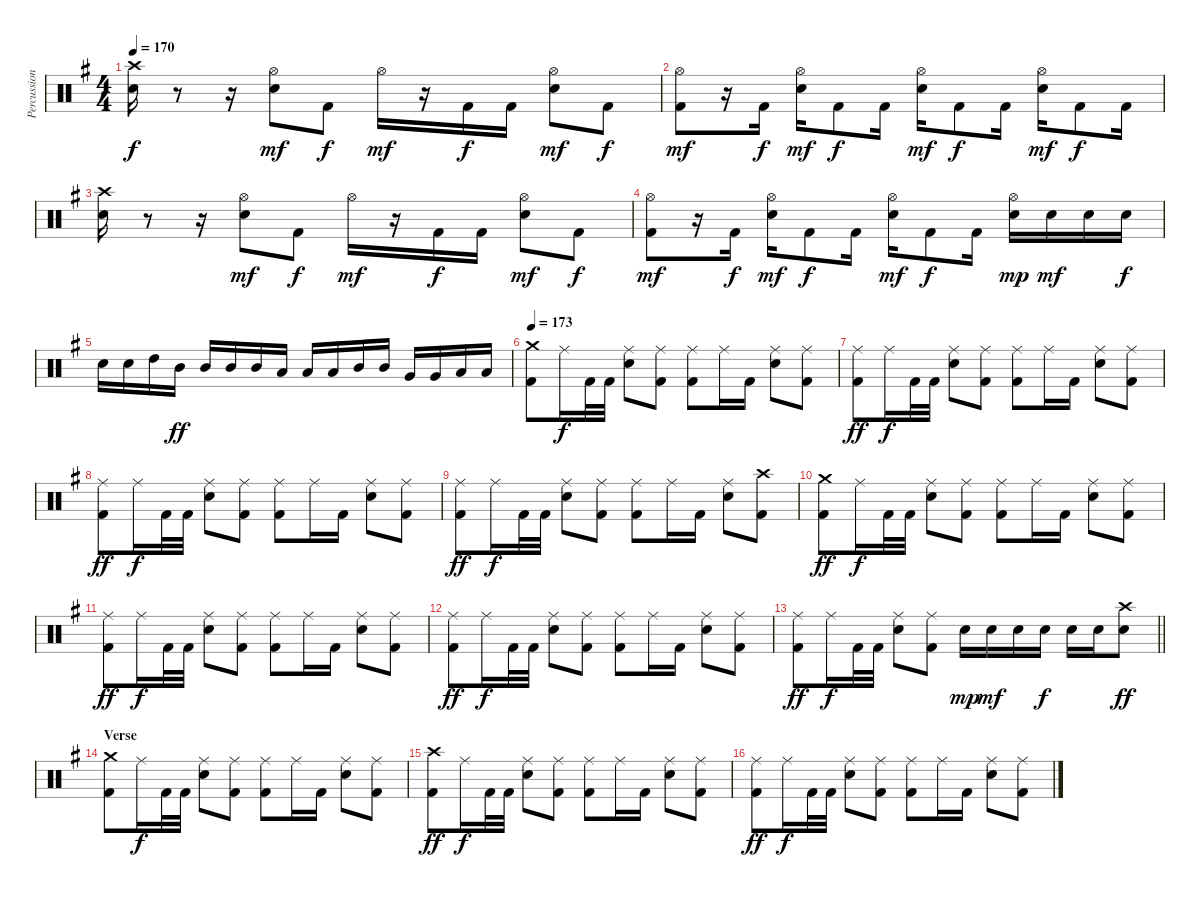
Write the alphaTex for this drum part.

\track ("Percussion" "Percussion") {instrument percussion}
\staff {score}
\articulation defaults
\ts (4 4)
\tempo 170
\clef neutral
\ks g
("Crash high (hit)" "Snare (hit) 2").16{dy f} r.8 r.16 ("Hi-Hat (open)" "Snare (hit) 2").8{dy mf} "Kick (hit) 2".8{dy f} "Hi-Hat (open)".16{dy mf} r.16 "Kick (hit) 2".16{dy f} "Kick (hit) 2".16 ("Hi-Hat (open)" "Snare (hit) 2").8{dy mf} "Kick (hit) 2".8{dy f} |
("Hi-Hat (open)" "Kick (hit) 2").8{dy mf} r.16 "Kick (hit) 2".16{dy f} ("Hi-Hat (open)" "Snare (hit) 2").16{dy mf} "Kick (hit) 2".8{dy f} "Kick (hit) 2".16 ("Hi-Hat (open)" "Snare (hit) 2").16{dy mf} "Kick (hit) 2".8{dy f} "Kick (hit) 2".16 ("Hi-Hat (open)" "Snare (hit) 2").16{dy mf} "Kick (hit) 2".8{dy f} "Kick (hit) 2".16 |
("Crash high (hit)" "Snare (hit) 2").16 r.8 r.16 ("Hi-Hat (open)" "Snare (hit) 2").8{dy mf} "Kick (hit) 2".8{dy f} "Hi-Hat (open)".16{dy mf} r.16 "Kick (hit) 2".16{dy f} "Kick (hit) 2".16 ("Hi-Hat (open)" "Snare (hit) 2").8{dy mf} "Kick (hit) 2".8{dy f} |
("Hi-Hat (open)" "Kick (hit) 2").8{dy mf} r.16 "Kick (hit) 2".16{dy f} ("Hi-Hat (open)" "Snare (hit) 2").16{dy mf} "Kick (hit) 2".8{dy f} "Kick (hit) 2".16 ("Hi-Hat (open)" "Snare (hit) 2").16{dy mf} "Kick (hit) 2".8{dy f} "Kick (hit) 2".16 ("Hi-Hat (open)" "Snare (hit) 2").16{dy mp} "Snare (hit) 2".16{dy mf} "Snare (hit) 2".16 "Snare (hit) 2".16{dy f} |
"Snare (hit) 2".16 "Snare (hit) 2".16 "High Tom (hit)".16 "Mid Tom (hit)".16{dy ff} "Mid Tom (hit)".16 "Mid Tom (hit)".16 "Mid Tom (hit)".16 "Low Tom (hit)".16 "Low Tom (hit)".16 "Low Tom (hit)".16 "Mid Tom (hit)".16 "Mid Tom (hit)".16 "Very Low Tom (hit)".16 "Very Low Tom (hit)".16 "Low Floor Tom (hit)".16 "Low Floor Tom (hit)".16 |
\tempo 173
("Crash medium (hit)" "Kick (hit) 2").8 "Ride (middle)".16{dy f} "Kick (hit) 2".32 "Kick (hit) 2".32 ("Ride (middle)" "Snare (hit) 2").8 ("Ride (middle)" "Kick (hit) 2").8 ("Ride (middle)" "Kick (hit) 2").8 "Ride (middle)".16 "Kick (hit) 2".16 ("Ride (middle)" "Snare (hit) 2").8 ("Ride (middle)" "Kick (hit) 2").8 |
("Ride (middle)" "Kick (hit) 2").8{dy ff} "Ride (middle)".16{dy f} "Kick (hit) 2".32 "Kick (hit) 2".32 ("Ride (middle)" "Snare (hit) 2").8 ("Ride (middle)" "Kick (hit) 2").8 ("Ride (middle)" "Kick (hit) 2").8 "Ride (middle)".16 "Kick (hit) 2".16 ("Ride (middle)" "Snare (hit) 2").8 ("Ride (middle)" "Kick (hit) 2").8 |
("Ride (middle)" "Kick (hit) 2").8{dy ff} "Ride (middle)".16{dy f} "Kick (hit) 2".32 "Kick (hit) 2".32 ("Ride (middle)" "Snare (hit) 2").8 ("Ride (middle)" "Kick (hit) 2").8 ("Ride (middle)" "Kick (hit) 2").8 "Ride (middle)".16 "Kick (hit) 2".16 ("Ride (middle)" "Snare (hit) 2").8 ("Ride (middle)" "Kick (hit) 2").8 |
("Ride (middle)" "Kick (hit) 2").8{dy ff} "Ride (middle)".16{dy f} "Kick (hit) 2".32 "Kick (hit) 2".32 ("Ride (middle)" "Snare (hit) 2").8 ("Ride (middle)" "Kick (hit) 2").8 ("Ride (middle)" "Kick (hit) 2").8 "Ride (middle)".16 "Kick (hit) 2".16 ("Ride (middle)" "Snare (hit) 2").8 ("Crash high (hit)" "Kick (hit) 2").8 |
("Crash medium (hit)" "Kick (hit) 2").8{dy ff} "Ride (middle)".16{dy f} "Kick (hit) 2".32 "Kick (hit) 2".32 ("Ride (middle)" "Snare (hit) 2").8 ("Ride (middle)" "Kick (hit) 2").8 ("Ride (middle)" "Kick (hit) 2").8 "Ride (middle)".16 "Kick (hit) 2".16 ("Ride (middle)" "Snare (hit) 2").8 ("Ride (middle)" "Kick (hit) 2").8 |
("Ride (middle)" "Kick (hit) 2").8{dy ff} "Ride (middle)".16{dy f} "Kick (hit) 2".32 "Kick (hit) 2".32 ("Ride (middle)" "Snare (hit) 2").8 ("Ride (middle)" "Kick (hit) 2").8 ("Ride (middle)" "Kick (hit) 2").8 "Ride (middle)".16 "Kick (hit) 2".16 ("Ride (middle)" "Snare (hit) 2").8 ("Ride (middle)" "Kick (hit) 2").8 |
("Ride (middle)" "Kick (hit) 2").8{dy ff} "Ride (middle)".16{dy f} "Kick (hit) 2".32 "Kick (hit) 2".32 ("Ride (middle)" "Snare (hit) 2").8 ("Ride (middle)" "Kick (hit) 2").8 ("Ride (middle)" "Kick (hit) 2").8 "Ride (middle)".16 "Kick (hit) 2".16 ("Ride (middle)" "Snare (hit) 2").8 ("Ride (middle)" "Kick (hit) 2").8 |
\barLineRight lightlight
("Ride (middle)" "Kick (hit) 2").8{dy ff} "Ride (middle)".16{dy f} "Kick (hit) 2".32 "Kick (hit) 2".32 ("Ride (middle)" "Snare (hit) 2").8 ("Ride (middle)" "Kick (hit) 2").8 "Snare (hit) 2".16{dy mp} "Snare (hit) 2".16{dy mf} "Snare (hit) 2".16 "Snare (hit) 2".16{dy f} "Snare (hit) 2".16 "Snare (hit) 2".16 ("Crash high (hit)" "Snare (hit) 2").8{dy ff} |
\section ("" "Verse")
("Crash medium (hit)" "Kick (hit) 2").8 "Ride (middle)".16{dy f} "Kick (hit) 2".32 "Kick (hit) 2".32 ("Ride (middle)" "Snare (hit) 2").8 ("Ride (middle)" "Kick (hit) 2").8 ("Ride (middle)" "Kick (hit) 2").8 "Ride (middle)".16 "Kick (hit) 2".16 ("Ride (middle)" "Snare (hit) 2").8 ("Ride (middle)" "Kick (hit) 2").8 |
("Crash high (hit)" "Kick (hit) 2").8{dy ff} "Ride (middle)".16{dy f} "Kick (hit) 2".32 "Kick (hit) 2".32 ("Ride (middle)" "Snare (hit) 2").8 ("Ride (middle)" "Kick (hit) 2").8 ("Ride (middle)" "Kick (hit) 2").8 "Ride (middle)".16 "Kick (hit) 2".16 ("Ride (middle)" "Snare (hit) 2").8 ("Ride (middle)" "Kick (hit) 2").8 |
("Ride (middle)" "Kick (hit) 2").8{dy ff} "Ride (middle)".16{dy f} "Kick (hit) 2".32 "Kick (hit) 2".32 ("Ride (middle)" "Snare (hit) 2").8 ("Ride (middle)" "Kick (hit) 2").8 ("Ride (middle)" "Kick (hit) 2").8 "Ride (middle)".16 "Kick (hit) 2".16 ("Ride (middle)" "Snare (hit) 2").8 ("Ride (middle)" "Kick (hit) 2").8
